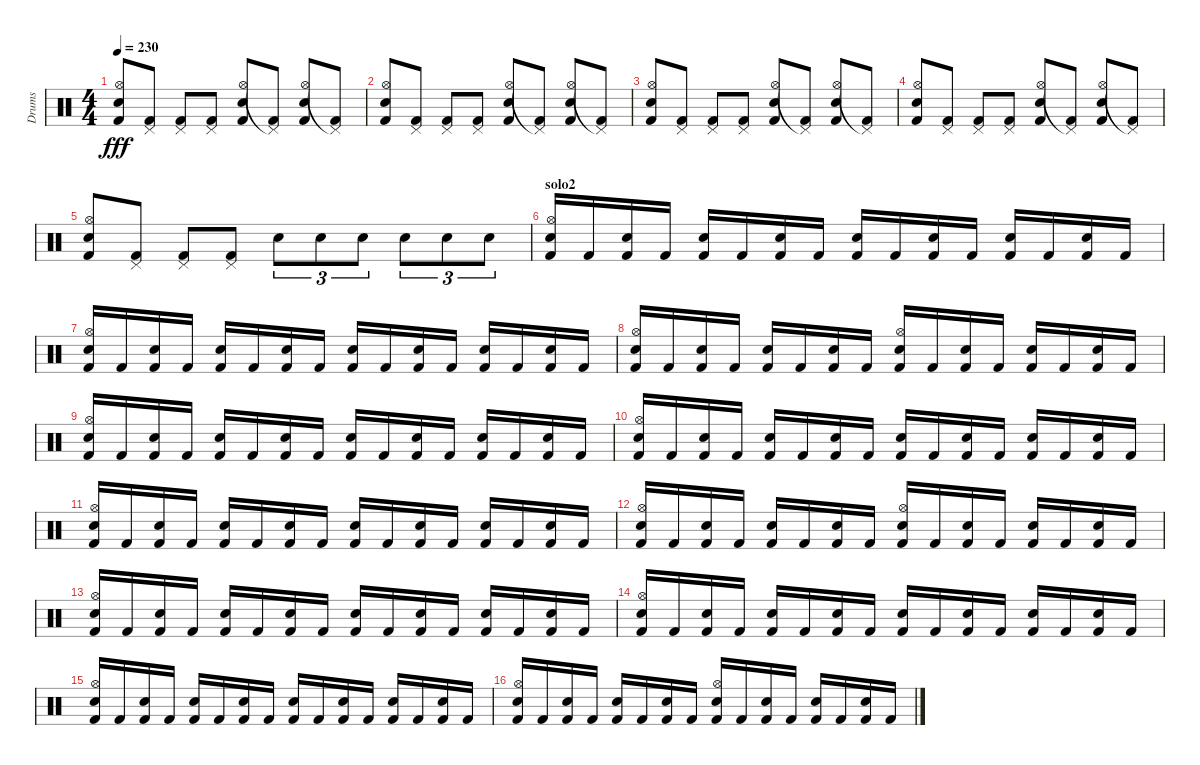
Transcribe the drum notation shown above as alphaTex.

\track ("Drums" "Drums") {instrument percussion}
\staff {score}
\articulation defaults
\ts (4 4)
\tempo 230
\clef neutral
\ks c
("Kick (hit) 2" "Hi-Hat (open)" "Electric Snare (hit)").8{dy fff} ("Kick (hit) 2" "Pedal Hi-Hat (hit)").8 ("Kick (hit) 2" "Pedal Hi-Hat (hit)").8 ("Kick (hit) 2" "Pedal Hi-Hat (hit)").8 ("Kick (hit) 2" "Hi-Hat (open)" "Electric Snare (hit)").8 ("Kick (hit) 2" "Pedal Hi-Hat (hit)"{t}).8 ("Kick (hit) 2" "Hi-Hat (open)" "Electric Snare (hit)").8 ("Kick (hit) 2" "Pedal Hi-Hat (hit)"{t}).8 |
("Kick (hit) 2" "Hi-Hat (open)" "Electric Snare (hit)").8 ("Kick (hit) 2" "Pedal Hi-Hat (hit)").8 ("Kick (hit) 2" "Pedal Hi-Hat (hit)").8 ("Kick (hit) 2" "Pedal Hi-Hat (hit)").8 ("Kick (hit) 2" "Hi-Hat (open)" "Electric Snare (hit)").8 ("Kick (hit) 2" "Pedal Hi-Hat (hit)"{t}).8 ("Kick (hit) 2" "Hi-Hat (open)" "Electric Snare (hit)").8 ("Kick (hit) 2" "Pedal Hi-Hat (hit)"{t}).8 |
("Kick (hit) 2" "Hi-Hat (open)" "Electric Snare (hit)").8 ("Kick (hit) 2" "Pedal Hi-Hat (hit)").8 ("Kick (hit) 2" "Pedal Hi-Hat (hit)").8 ("Kick (hit) 2" "Pedal Hi-Hat (hit)").8 ("Kick (hit) 2" "Hi-Hat (open)" "Electric Snare (hit)").8 ("Kick (hit) 2" "Pedal Hi-Hat (hit)"{t}).8 ("Kick (hit) 2" "Hi-Hat (open)" "Electric Snare (hit)").8 ("Kick (hit) 2" "Pedal Hi-Hat (hit)"{t}).8 |
("Kick (hit) 2" "Hi-Hat (open)" "Electric Snare (hit)").8 ("Kick (hit) 2" "Pedal Hi-Hat (hit)").8 ("Kick (hit) 2" "Pedal Hi-Hat (hit)").8 ("Kick (hit) 2" "Pedal Hi-Hat (hit)").8 ("Kick (hit) 2" "Hi-Hat (open)" "Electric Snare (hit)").8 ("Kick (hit) 2" "Pedal Hi-Hat (hit)"{t}).8 ("Kick (hit) 2" "Hi-Hat (open)" "Electric Snare (hit)").8 ("Kick (hit) 2" "Pedal Hi-Hat (hit)"{t}).8 |
("Kick (hit) 2" "Hi-Hat (open)" "Electric Snare (hit)").8 ("Kick (hit) 2" "Pedal Hi-Hat (hit)").8 ("Kick (hit) 2" "Pedal Hi-Hat (hit)").8 ("Kick (hit) 2" "Pedal Hi-Hat (hit)").8 "Electric Snare (hit)".8{tu (3 2)} "Electric Snare (hit)".8{tu (3 2)} "Electric Snare (hit)".8{tu (3 2)} "Electric Snare (hit)".8{tu (3 2)} "Electric Snare (hit)".8{tu (3 2)} "Electric Snare (hit)".8{tu (3 2)} |
\section ("" "solo2")
("Hi-Hat (open)" "Electric Snare (hit)" "Kick (hit) 2").16 "Kick (hit) 2".16 ("Snare (hit) 2" "Kick (hit) 2").16 "Kick (hit) 2".16 ("Electric Snare (hit)" "Kick (hit) 2").16 "Kick (hit) 2".16 ("Snare (hit) 2" "Kick (hit) 2").16 "Kick (hit) 2".16 ("Electric Snare (hit)" "Kick (hit) 2").16 "Kick (hit) 2".16 ("Snare (hit) 2" "Kick (hit) 2").16 "Kick (hit) 2".16 ("Electric Snare (hit)" "Kick (hit) 2").16 "Kick (hit) 2".16 ("Snare (hit) 2" "Kick (hit) 2").16 "Kick (hit) 2".16 |
("Hi-Hat (open)" "Electric Snare (hit)" "Kick (hit) 2").16 "Kick (hit) 2".16 ("Snare (hit) 2" "Kick (hit) 2").16 "Kick (hit) 2".16 ("Electric Snare (hit)" "Kick (hit) 2").16 "Kick (hit) 2".16 ("Snare (hit) 2" "Kick (hit) 2").16 "Kick (hit) 2".16 ("Electric Snare (hit)" "Kick (hit) 2").16 "Kick (hit) 2".16 ("Snare (hit) 2" "Kick (hit) 2").16 "Kick (hit) 2".16 ("Electric Snare (hit)" "Kick (hit) 2").16 "Kick (hit) 2".16 ("Snare (hit) 2" "Kick (hit) 2").16 "Kick (hit) 2".16 |
("Hi-Hat (open)" "Electric Snare (hit)" "Kick (hit) 2").16 "Kick (hit) 2".16 ("Snare (hit) 2" "Kick (hit) 2").16 "Kick (hit) 2".16 ("Electric Snare (hit)" "Kick (hit) 2").16 "Kick (hit) 2".16 ("Snare (hit) 2" "Kick (hit) 2").16 "Kick (hit) 2".16 ("Hi-Hat (open)" "Electric Snare (hit)" "Kick (hit) 2").16 "Kick (hit) 2".16 ("Snare (hit) 2" "Kick (hit) 2").16 "Kick (hit) 2".16 ("Electric Snare (hit)" "Kick (hit) 2").16 "Kick (hit) 2".16 ("Snare (hit) 2" "Kick (hit) 2").16 "Kick (hit) 2".16 |
("Hi-Hat (open)" "Electric Snare (hit)" "Kick (hit) 2").16 "Kick (hit) 2".16 ("Snare (hit) 2" "Kick (hit) 2").16 "Kick (hit) 2".16 ("Electric Snare (hit)" "Kick (hit) 2").16 "Kick (hit) 2".16 ("Snare (hit) 2" "Kick (hit) 2").16 "Kick (hit) 2".16 ("Electric Snare (hit)" "Kick (hit) 2").16 "Kick (hit) 2".16 ("Snare (hit) 2" "Kick (hit) 2").16 "Kick (hit) 2".16 ("Electric Snare (hit)" "Kick (hit) 2").16 "Kick (hit) 2".16 ("Snare (hit) 2" "Kick (hit) 2").16 "Kick (hit) 2".16 |
("Hi-Hat (open)" "Electric Snare (hit)" "Kick (hit) 2").16 "Kick (hit) 2".16 ("Snare (hit) 2" "Kick (hit) 2").16 "Kick (hit) 2".16 ("Electric Snare (hit)" "Kick (hit) 2").16 "Kick (hit) 2".16 ("Snare (hit) 2" "Kick (hit) 2").16 "Kick (hit) 2".16 ("Electric Snare (hit)" "Kick (hit) 2").16 "Kick (hit) 2".16 ("Snare (hit) 2" "Kick (hit) 2").16 "Kick (hit) 2".16 ("Electric Snare (hit)" "Kick (hit) 2").16 "Kick (hit) 2".16 ("Snare (hit) 2" "Kick (hit) 2").16 "Kick (hit) 2".16 |
("Hi-Hat (open)" "Electric Snare (hit)" "Kick (hit) 2").16 "Kick (hit) 2".16 ("Snare (hit) 2" "Kick (hit) 2").16 "Kick (hit) 2".16 ("Electric Snare (hit)" "Kick (hit) 2").16 "Kick (hit) 2".16 ("Snare (hit) 2" "Kick (hit) 2").16 "Kick (hit) 2".16 ("Electric Snare (hit)" "Kick (hit) 2").16 "Kick (hit) 2".16 ("Snare (hit) 2" "Kick (hit) 2").16 "Kick (hit) 2".16 ("Electric Snare (hit)" "Kick (hit) 2").16 "Kick (hit) 2".16 ("Snare (hit) 2" "Kick (hit) 2").16 "Kick (hit) 2".16 |
("Hi-Hat (open)" "Electric Snare (hit)" "Kick (hit) 2").16 "Kick (hit) 2".16 ("Snare (hit) 2" "Kick (hit) 2").16 "Kick (hit) 2".16 ("Electric Snare (hit)" "Kick (hit) 2").16 "Kick (hit) 2".16 ("Snare (hit) 2" "Kick (hit) 2").16 "Kick (hit) 2".16 ("Hi-Hat (open)" "Electric Snare (hit)" "Kick (hit) 2").16 "Kick (hit) 2".16 ("Snare (hit) 2" "Kick (hit) 2").16 "Kick (hit) 2".16 ("Electric Snare (hit)" "Kick (hit) 2").16 "Kick (hit) 2".16 ("Snare (hit) 2" "Kick (hit) 2").16 "Kick (hit) 2".16 |
("Hi-Hat (open)" "Electric Snare (hit)" "Kick (hit) 2").16 "Kick (hit) 2".16 ("Snare (hit) 2" "Kick (hit) 2").16 "Kick (hit) 2".16 ("Electric Snare (hit)" "Kick (hit) 2").16 "Kick (hit) 2".16 ("Snare (hit) 2" "Kick (hit) 2").16 "Kick (hit) 2".16 ("Electric Snare (hit)" "Kick (hit) 2").16 "Kick (hit) 2".16 ("Snare (hit) 2" "Kick (hit) 2").16 "Kick (hit) 2".16 ("Electric Snare (hit)" "Kick (hit) 2").16 "Kick (hit) 2".16 ("Snare (hit) 2" "Kick (hit) 2").16 "Kick (hit) 2".16 |
("Hi-Hat (open)" "Electric Snare (hit)" "Kick (hit) 2").16 "Kick (hit) 2".16 ("Snare (hit) 2" "Kick (hit) 2").16 "Kick (hit) 2".16 ("Electric Snare (hit)" "Kick (hit) 2").16 "Kick (hit) 2".16 ("Snare (hit) 2" "Kick (hit) 2").16 "Kick (hit) 2".16 ("Electric Snare (hit)" "Kick (hit) 2").16 "Kick (hit) 2".16 ("Snare (hit) 2" "Kick (hit) 2").16 "Kick (hit) 2".16 ("Electric Snare (hit)" "Kick (hit) 2").16 "Kick (hit) 2".16 ("Snare (hit) 2" "Kick (hit) 2").16 "Kick (hit) 2".16 |
("Hi-Hat (open)" "Electric Snare (hit)" "Kick (hit) 2").16 "Kick (hit) 2".16 ("Snare (hit) 2" "Kick (hit) 2").16 "Kick (hit) 2".16 ("Electric Snare (hit)" "Kick (hit) 2").16 "Kick (hit) 2".16 ("Snare (hit) 2" "Kick (hit) 2").16 "Kick (hit) 2".16 ("Electric Snare (hit)" "Kick (hit) 2").16 "Kick (hit) 2".16 ("Snare (hit) 2" "Kick (hit) 2").16 "Kick (hit) 2".16 ("Electric Snare (hit)" "Kick (hit) 2").16 "Kick (hit) 2".16 ("Snare (hit) 2" "Kick (hit) 2").16 "Kick (hit) 2".16 |
("Hi-Hat (open)" "Electric Snare (hit)" "Kick (hit) 2").16 "Kick (hit) 2".16 ("Snare (hit) 2" "Kick (hit) 2").16 "Kick (hit) 2".16 ("Electric Snare (hit)" "Kick (hit) 2").16 "Kick (hit) 2".16 ("Snare (hit) 2" "Kick (hit) 2").16 "Kick (hit) 2".16 ("Hi-Hat (open)" "Electric Snare (hit)" "Kick (hit) 2").16 "Kick (hit) 2".16 ("Snare (hit) 2" "Kick (hit) 2").16 "Kick (hit) 2".16 ("Electric Snare (hit)" "Kick (hit) 2").16 "Kick (hit) 2".16 ("Snare (hit) 2" "Kick (hit) 2").16 "Kick (hit) 2".16
